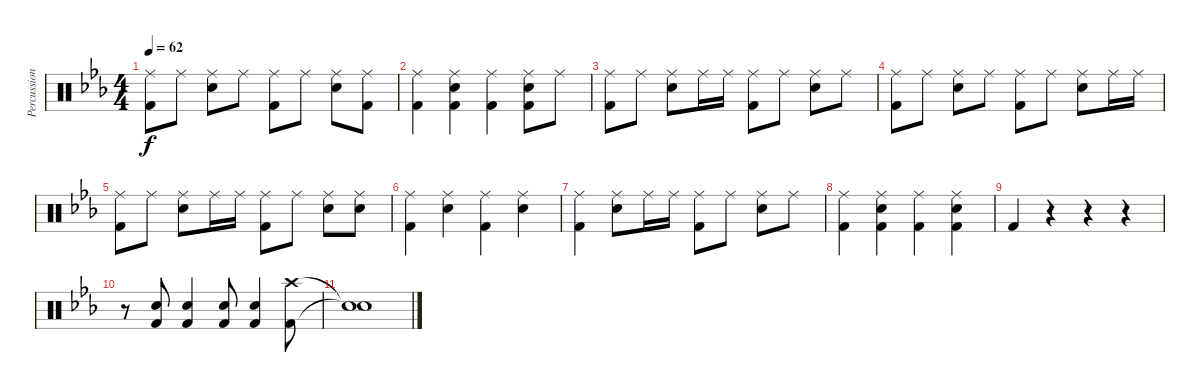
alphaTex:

\track ("Percussion" "Percussion") {instrument percussion}
\staff {score}
\articulation defaults
\ts (4 4)
\tempo 62
\clef neutral
\ks eb
("Ride (middle)" "Kick (hit) 2").8{dy f} "Ride (middle)".8 ("Ride (middle)" "Snare (hit) 2").8 "Ride (middle)".8 ("Ride (middle)" "Kick (hit) 2").8 "Ride (middle)".8 ("Ride (middle)" "Snare (hit) 2").8 ("Ride (middle)" "Kick (hit) 2").8 |
("Ride (middle)" "Kick (hit) 2").4 ("Ride (middle)" "Snare (hit) 2" "Kick (hit) 2").4 ("Ride (middle)" "Kick (hit) 2").4 ("Ride (middle)" "Snare (hit) 2" "Kick (hit) 2").8 "Ride (middle)".8 |
("Ride (middle)" "Kick (hit) 2").8 "Ride (middle)".8 ("Ride (middle)" "Snare (hit) 2").8 "Ride (middle)".16 "Ride (middle)".16 ("Ride (middle)" "Kick (hit) 2").8 "Ride (middle)".8 ("Ride (middle)" "Snare (hit) 2").8 "Ride (middle)".8 |
("Ride (middle)" "Kick (hit) 2").8 "Ride (middle)".8 ("Ride (middle)" "Snare (hit) 2").8 "Ride (middle)".8 ("Ride (middle)" "Kick (hit) 2").8 "Ride (middle)".8 ("Ride (middle)" "Snare (hit) 2").8 "Ride (middle)".16 "Ride (middle)".16 |
("Ride (middle)" "Kick (hit) 2").8 "Ride (middle)".8 ("Ride (middle)" "Snare (hit) 2").8 "Ride (middle)".16 "Ride (middle)".16 ("Ride (middle)" "Kick (hit) 2").8 "Ride (middle)".8 ("Ride (middle)" "Snare (hit) 2").8 ("Ride (middle)" "Snare (hit) 2").8 |
("Ride (middle)" "Kick (hit) 2").4 ("Ride (middle)" "Snare (hit) 2").4 ("Ride (middle)" "Kick (hit) 2").4 ("Ride (middle)" "Snare (hit) 2").4 |
("Ride (middle)" "Kick (hit) 2").4 ("Ride (middle)" "Snare (hit) 2").8 "Ride (middle)".16 "Ride (middle)".16 ("Ride (middle)" "Kick (hit) 2").8 "Ride (middle)".8 ("Ride (middle)" "Snare (hit) 2").8 "Ride (middle)".8 |
("Ride (middle)" "Kick (hit) 2").4 ("Ride (middle)" "Snare (hit) 2" "Kick (hit) 2").4 ("Ride (middle)" "Kick (hit) 2").4 ("Ride (middle)" "Snare (hit) 2" "Kick (hit) 2").4 |
"Kick (hit) 2".4 r.4 r.4 r.4 |
r.8 ("Snare (hit) 2" "Kick (hit) 2").8 ("Snare (hit) 2" "Kick (hit) 2").4 ("Snare (hit) 2" "Kick (hit) 2").8 ("Snare (hit) 2" "Kick (hit) 2").4 ("Crash high (hit)" "Kick (hit) 2").8 |
("Snare (hit)"{t} "Snare (hit)"{t}).1
